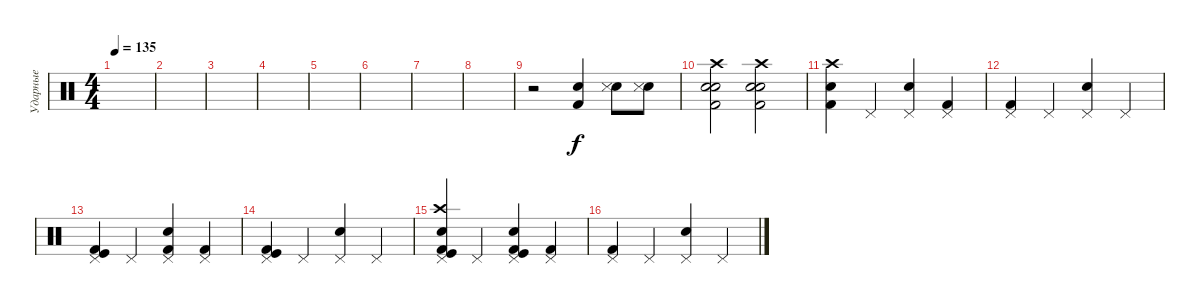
\track ("Ударные" "Ударные") {instrument percussion}
\staff {score}
\articulation defaults
\ts (4 4)
\tempo 135
\clef neutral
\ks c
|
|
|
|
|
|
|
|
r.2 ("Kick (hit) 2" "Snare (hit) 2").4 ("Electric Snare (hit)" "Snare (side stick) 3").8 ("Electric Snare (hit)" "Snare (side stick) 3").8 |
("Kick (hit) 2" "Snare (hit) 2" "Crash high (hit)" "Electric Snare (hit)").2 ("Kick (hit) 2" "Snare (hit) 2" "Crash high (hit)" "Electric Snare (hit)").2 |
("Kick (hit) 2" "Snare (hit) 2" "Crash high (hit)").4 "Pedal Hi-Hat (hit)".4 ("Electric Snare (hit)" "Pedal Hi-Hat (hit)").4 ("Kick (hit) 2" "Pedal Hi-Hat (hit)").4 |
("Pedal Hi-Hat (hit)" "Kick (hit) 2").4 "Pedal Hi-Hat (hit)".4 ("Pedal Hi-Hat (hit)" "Electric Snare (hit)").4 "Pedal Hi-Hat (hit)".4 |
("Pedal Hi-Hat (hit)" "Kick (hit) 2" "Kick (hit)").4 "Pedal Hi-Hat (hit)".4 ("Pedal Hi-Hat (hit)" "Electric Snare (hit)" "Kick (hit) 2").4 ("Pedal Hi-Hat (hit)" "Kick (hit) 2").4 |
("Kick (hit) 2" "Kick (hit)" "Pedal Hi-Hat (hit)").4 "Pedal Hi-Hat (hit)".4 ("Electric Snare (hit)" "Pedal Hi-Hat (hit)").4 "Pedal Hi-Hat (hit)".4 |
("Pedal Hi-Hat (hit)" "Kick (hit)" "Crash high (hit)" "Snare (hit) 2" "Kick (hit) 2").4 "Pedal Hi-Hat (hit)".4 ("Kick (hit)" "Pedal Hi-Hat (hit)" "Electric Snare (hit)" "Kick (hit) 2").4 ("Pedal Hi-Hat (hit)" "Kick (hit) 2").4 |
("Pedal Hi-Hat (hit)" "Kick (hit) 2").4 "Pedal Hi-Hat (hit)".4 ("Pedal Hi-Hat (hit)" "Electric Snare (hit)").4 "Pedal Hi-Hat (hit)".4
